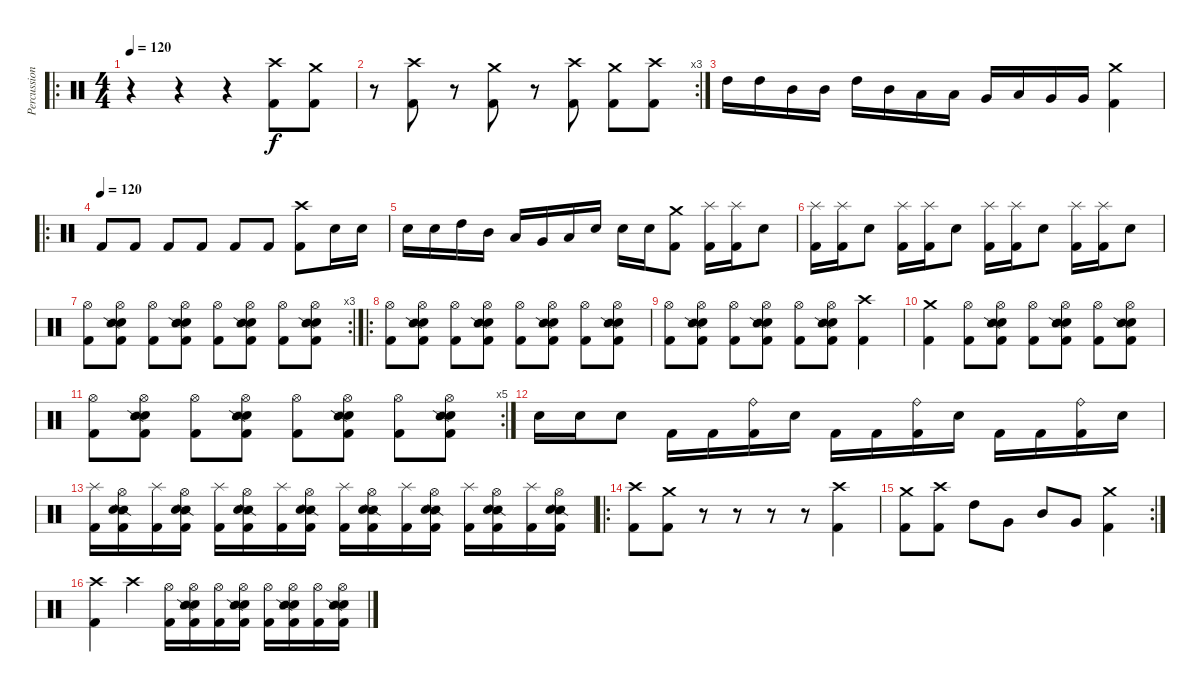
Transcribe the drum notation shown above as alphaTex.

\track ("Percussion" "Percussion") {instrument percussion}
\staff {score}
\articulation defaults
\ro
\ts (4 4)
\tempo 120
\tempo 160
\tempo 120
\clef neutral
\ks c
r.4{dy f} r.4 r.4 ("Crash high (hit)" "Kick (hit) 2").8 ("Crash medium (hit)" "Kick (hit) 2").8 |
\rc 3
r.8 ("Crash high (hit)" "Kick (hit) 2").8 r.8 ("Crash medium (hit)" "Kick (hit) 2").8 r.8 ("Crash high (hit)" "Kick (hit) 2").8 ("Crash medium (hit)" "Kick (hit) 2").8 ("Crash high (hit)" "Kick (hit) 2").8 |
"High Tom (hit)".16 "High Tom (hit)".16 "Mid Tom (hit)".16 "Mid Tom (hit)".16 "High Tom (hit)".16 "Mid Tom (hit)".16 "Low Tom (hit)".16 "Low Tom (hit)".16 "Very Low Tom (hit)".16 "Low Tom (hit)".16 "Very Low Tom (hit)".16 "Very Low Tom (hit)".16 ("Crash medium (hit)" "Kick (hit) 2").4 |
\ro
\tempo (120)
"Kick (hit) 2".8 "Kick (hit) 2".8 "Kick (hit) 2".8 "Kick (hit) 2".8 "Kick (hit) 2".8 "Kick (hit) 2".8 ("Crash high (hit)" "Kick (hit) 2").8 "Electric Snare (hit)".16 "Electric Snare (hit)".16 |
"Electric Snare (hit)".16 "Electric Snare (hit)".16 "High Tom (hit)".16 "Mid Tom (hit)".16 "Low Tom (hit)".16 "Very Low Tom (hit)".16 "Low Floor Tom (hit)".16 "Electric Snare (hit)".16 "Electric Snare (hit)".16 "Electric Snare (hit)".16 ("Crash medium (hit)" "Kick (hit) 2").8 ("Splash (hit)" "Kick (hit) 2").16 ("Splash (hit)" "Kick (hit) 2").16 "Electric Snare (hit)".8 |
("Splash (hit)" "Kick (hit) 2").16 ("Splash (hit)" "Kick (hit) 2").16 "Electric Snare (hit)".8 ("Splash (hit)" "Kick (hit) 2").16 ("Splash (hit)" "Kick (hit) 2").16 "Electric Snare (hit)".8 ("Splash (hit)" "Kick (hit) 2").16 ("Splash (hit)" "Kick (hit) 2").16 "Electric Snare (hit)".8 ("Splash (hit)" "Kick (hit) 2").16 ("Splash (hit)" "Kick (hit) 2").16 "Electric Snare (hit)".8 |
\rc 3
("Hi-Hat (open)" "Kick (hit) 2").8 ("Hi-Hat (open)" "Electric Snare (hit)" "Snare (side stick) 2" "Kick (hit) 2").8 ("Hi-Hat (open)" "Kick (hit) 2").8 ("Hi-Hat (open)" "Electric Snare (hit)" "Snare (side stick) 2" "Kick (hit) 2").8 ("Hi-Hat (open)" "Kick (hit) 2").8 ("Hi-Hat (open)" "Electric Snare (hit)" "Snare (side stick) 2" "Kick (hit) 2").8 ("Hi-Hat (open)" "Kick (hit) 2").8 ("Hi-Hat (open)" "Electric Snare (hit)" "Snare (side stick) 2" "Kick (hit) 2").8 |
\ro
("Hi-Hat (open)" "Kick (hit) 2").8 ("Hi-Hat (open)" "Electric Snare (hit)" "Snare (side stick) 2" "Kick (hit) 2").8 ("Hi-Hat (open)" "Kick (hit) 2").8 ("Hi-Hat (open)" "Electric Snare (hit)" "Snare (side stick) 2" "Kick (hit) 2").8 ("Hi-Hat (open)" "Kick (hit) 2").8 ("Hi-Hat (open)" "Electric Snare (hit)" "Snare (side stick) 2" "Kick (hit) 2").8 ("Hi-Hat (open)" "Kick (hit) 2").8 ("Hi-Hat (open)" "Electric Snare (hit)" "Snare (side stick) 2" "Kick (hit) 2").8 |
("Hi-Hat (open)" "Kick (hit) 2").8 ("Hi-Hat (open)" "Electric Snare (hit)" "Snare (side stick) 2" "Kick (hit) 2").8 ("Hi-Hat (open)" "Kick (hit) 2").8 ("Hi-Hat (open)" "Electric Snare (hit)" "Snare (side stick) 2" "Kick (hit) 2").8 ("Hi-Hat (open)" "Kick (hit) 2").8 ("Hi-Hat (open)" "Electric Snare (hit)" "Snare (side stick) 2" "Kick (hit) 2").8 ("Crash high (hit)" "Kick (hit) 2").4 |
("Crash medium (hit)" "Kick (hit) 2").4 ("Hi-Hat (open)" "Kick (hit) 2").8 ("Hi-Hat (open)" "Electric Snare (hit)" "Snare (side stick) 2" "Kick (hit) 2").8 ("Hi-Hat (open)" "Kick (hit) 2").8 ("Hi-Hat (open)" "Electric Snare (hit)" "Snare (side stick) 2" "Kick (hit) 2").8 ("Hi-Hat (open)" "Kick (hit) 2").8 ("Hi-Hat (open)" "Electric Snare (hit)" "Snare (side stick) 2" "Kick (hit) 2").8 |
\rc 5
("Hi-Hat (open)" "Kick (hit) 2").8 ("Hi-Hat (open)" "Electric Snare (hit)" "Snare (side stick) 2" "Kick (hit) 2").8 ("Hi-Hat (open)" "Kick (hit) 2").8 ("Hi-Hat (open)" "Electric Snare (hit)" "Snare (side stick) 2" "Kick (hit) 2").8 ("Hi-Hat (open)" "Kick (hit) 2").8 ("Hi-Hat (open)" "Electric Snare (hit)" "Snare (side stick) 2" "Kick (hit) 2").8 ("Hi-Hat (open)" "Kick (hit) 2").8 ("Hi-Hat (open)" "Electric Snare (hit)" "Snare (side stick) 2" "Kick (hit) 2").8 |
"Electric Snare (hit)".16 "Electric Snare (hit)".16 "Electric Snare (hit)".8 "Kick (hit) 2".16 "Kick (hit) 2".16 ("Ride (bell)" "Kick (hit) 2").16 "Electric Snare (hit)".16 "Kick (hit) 2".16 "Kick (hit) 2".16 ("Ride (bell)" "Kick (hit) 2").16 "Electric Snare (hit)".16 "Kick (hit) 2".16 "Kick (hit) 2".16 ("Ride (bell)" "Kick (hit) 2").16 "Electric Snare (hit)".16 |
("Splash (hit)" "Kick (hit) 2").16 ("Hi-Hat (open)" "Snare (side stick) 2" "Kick (hit) 2" "Electric Snare (hit)").16 ("Splash (hit)" "Kick (hit) 2").16 ("Hi-Hat (open)" "Snare (side stick) 2" "Kick (hit) 2" "Electric Snare (hit)").16 ("Splash (hit)" "Kick (hit) 2").16 ("Hi-Hat (open)" "Snare (side stick) 2" "Kick (hit) 2" "Electric Snare (hit)").16 ("Splash (hit)" "Kick (hit) 2").16 ("Hi-Hat (open)" "Snare (side stick) 2" "Kick (hit) 2" "Electric Snare (hit)").16 ("Splash (hit)" "Kick (hit) 2").16 ("Hi-Hat (open)" "Snare (side stick) 2" "Kick (hit) 2" "Electric Snare (hit)").16 ("Splash (hit)" "Kick (hit) 2").16 ("Hi-Hat (open)" "Snare (side stick) 2" "Kick (hit) 2" "Electric Snare (hit)").16 ("Splash (hit)" "Kick (hit) 2").16 ("Hi-Hat (open)" "Snare (side stick) 2" "Kick (hit) 2" "Electric Snare (hit)").16 ("Splash (hit)" "Kick (hit) 2").16 ("Hi-Hat (open)" "Snare (side stick) 2" "Kick (hit) 2" "Electric Snare (hit)").16 |
\ro
("Crash high (hit)" "Kick (hit) 2").8 ("Crash medium (hit)" "Kick (hit) 2").8 r.8 r.8 r.8 r.8 ("Crash high (hit)" "Kick (hit) 2").4 |
\rc 2
("Crash medium (hit)" "Kick (hit) 2").8 ("Crash high (hit)" "Kick (hit) 2").8 "High Tom (hit)".8 "Very Low Tom (hit)".8 "Mid Tom (hit)".8 "Very Low Tom (hit)".8 ("Crash medium (hit)" "Kick (hit) 2").4 |
("Crash high (hit)" "Kick (hit) 2").4 "Crash high (hit)".4 ("Hi-Hat (open)" "Kick (hit) 2").16 ("Hi-Hat (open)" "Electric Snare (hit)" "Snare (side stick) 2" "Kick (hit) 2").16 ("Hi-Hat (open)" "Kick (hit) 2").16 ("Hi-Hat (open)" "Electric Snare (hit)" "Snare (side stick) 2" "Kick (hit) 2").16 ("Hi-Hat (open)" "Kick (hit) 2").16 ("Hi-Hat (open)" "Electric Snare (hit)" "Snare (side stick) 2" "Kick (hit) 2").16 ("Hi-Hat (open)" "Kick (hit) 2").16 ("Hi-Hat (open)" "Electric Snare (hit)" "Snare (side stick) 2" "Kick (hit) 2").16
